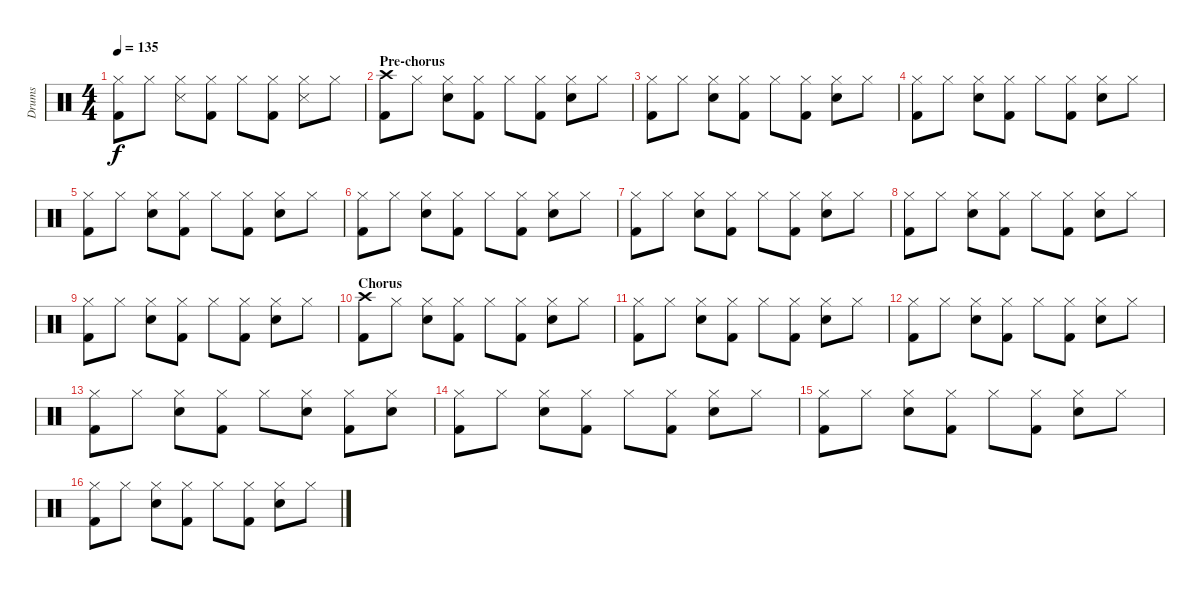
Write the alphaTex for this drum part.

\track ("Drums" "Drums") {instrument percussion}
\staff {score}
\articulation defaults
\ts (4 4)
\tempo 135
\clef neutral
\ks c
("Kick (hit) 2" "Hi-Hat (closed)").8{dy f} "Hi-Hat (closed)".8 ("Snare (side stick) 3" "Hi-Hat (closed)").8 ("Kick (hit) 2" "Hi-Hat (closed)").8 "Hi-Hat (closed)".8 ("Kick (hit) 2" "Hi-Hat (closed)").8 ("Snare (side stick) 3" "Hi-Hat (closed)").8 "Hi-Hat (closed)".8 |
\section ("" "Pre-chorus")
("Crash high (hit)" "Kick (hit) 2").8 "Hi-Hat (closed)".8 ("Snare (hit) 2" "Hi-Hat (closed)").8 ("Kick (hit) 2" "Hi-Hat (closed)").8 "Hi-Hat (closed)".8 ("Kick (hit) 2" "Hi-Hat (closed)").8 ("Snare (hit) 2" "Hi-Hat (closed)").8 "Hi-Hat (closed)".8 |
("Kick (hit) 2" "Hi-Hat (closed)").8 "Hi-Hat (closed)".8 ("Snare (hit) 2" "Hi-Hat (closed)").8 ("Kick (hit) 2" "Hi-Hat (closed)").8 "Hi-Hat (closed)".8 ("Kick (hit) 2" "Hi-Hat (closed)").8 ("Snare (hit) 2" "Hi-Hat (closed)").8 "Hi-Hat (closed)".8 |
("Kick (hit) 2" "Hi-Hat (closed)").8 "Hi-Hat (closed)".8 ("Snare (hit) 2" "Hi-Hat (closed)").8 ("Kick (hit) 2" "Hi-Hat (closed)").8 "Hi-Hat (closed)".8 ("Kick (hit) 2" "Hi-Hat (closed)").8 ("Snare (hit) 2" "Hi-Hat (closed)").8 "Hi-Hat (closed)".8 |
("Kick (hit) 2" "Hi-Hat (closed)").8 "Hi-Hat (closed)".8 ("Snare (hit) 2" "Hi-Hat (closed)").8 ("Kick (hit) 2" "Hi-Hat (closed)").8 "Hi-Hat (closed)".8 ("Kick (hit) 2" "Hi-Hat (closed)").8 ("Snare (hit) 2" "Hi-Hat (closed)").8 "Hi-Hat (closed)".8 |
("Kick (hit) 2" "Hi-Hat (closed)").8 "Hi-Hat (closed)".8 ("Snare (hit) 2" "Hi-Hat (closed)").8 ("Kick (hit) 2" "Hi-Hat (closed)").8 "Hi-Hat (closed)".8 ("Kick (hit) 2" "Hi-Hat (closed)").8 ("Snare (hit) 2" "Hi-Hat (closed)").8 "Hi-Hat (closed)".8 |
("Kick (hit) 2" "Hi-Hat (closed)").8 "Hi-Hat (closed)".8 ("Snare (hit) 2" "Hi-Hat (closed)").8 ("Kick (hit) 2" "Hi-Hat (closed)").8 "Hi-Hat (closed)".8 ("Kick (hit) 2" "Hi-Hat (closed)").8 ("Snare (hit) 2" "Hi-Hat (closed)").8 "Hi-Hat (closed)".8 |
("Kick (hit) 2" "Hi-Hat (closed)").8 "Hi-Hat (closed)".8 ("Snare (hit) 2" "Hi-Hat (closed)").8 ("Kick (hit) 2" "Hi-Hat (closed)").8 "Hi-Hat (closed)".8 ("Kick (hit) 2" "Hi-Hat (closed)").8 ("Snare (hit) 2" "Hi-Hat (closed)").8 "Hi-Hat (closed)".8 |
("Kick (hit) 2" "Hi-Hat (closed)").8 "Hi-Hat (closed)".8 ("Snare (hit) 2" "Hi-Hat (closed)").8 ("Kick (hit) 2" "Hi-Hat (closed)").8 "Hi-Hat (closed)".8 ("Kick (hit) 2" "Hi-Hat (closed)").8 ("Snare (hit) 2" "Hi-Hat (closed)").8 "Hi-Hat (closed)".8 |
\section ("" "Chorus")
("Crash high (hit)" "Kick (hit) 2").8 "Hi-Hat (closed)".8 ("Snare (hit) 2" "Hi-Hat (closed)").8 ("Kick (hit) 2" "Hi-Hat (closed)").8 "Hi-Hat (closed)".8 ("Kick (hit) 2" "Hi-Hat (closed)").8 ("Snare (hit) 2" "Hi-Hat (closed)").8 "Hi-Hat (closed)".8 |
("Kick (hit) 2" "Hi-Hat (closed)").8 "Hi-Hat (closed)".8 ("Snare (hit) 2" "Hi-Hat (closed)").8 ("Kick (hit) 2" "Hi-Hat (closed)").8 "Hi-Hat (closed)".8 ("Kick (hit) 2" "Hi-Hat (closed)").8 ("Snare (hit) 2" "Hi-Hat (closed)").8 "Hi-Hat (closed)".8 |
("Kick (hit) 2" "Hi-Hat (closed)").8 "Hi-Hat (closed)".8 ("Snare (hit) 2" "Hi-Hat (closed)").8 ("Kick (hit) 2" "Hi-Hat (closed)").8 "Hi-Hat (closed)".8 ("Kick (hit) 2" "Hi-Hat (closed)").8 ("Snare (hit) 2" "Hi-Hat (closed)").8 "Hi-Hat (closed)".8 |
("Kick (hit) 2" "Hi-Hat (closed)").8 "Hi-Hat (closed)".8 ("Snare (hit) 2" "Hi-Hat (closed)").8 ("Kick (hit) 2" "Hi-Hat (closed)").8 "Hi-Hat (closed)".8 ("Snare (hit) 2" "Hi-Hat (closed)").8 ("Kick (hit) 2" "Hi-Hat (closed)").8 ("Snare (hit) 2" "Hi-Hat (closed)").8 |
("Kick (hit) 2" "Hi-Hat (closed)").8 "Hi-Hat (closed)".8 ("Snare (hit) 2" "Hi-Hat (closed)").8 ("Kick (hit) 2" "Hi-Hat (closed)").8 "Hi-Hat (closed)".8 ("Kick (hit) 2" "Hi-Hat (closed)").8 ("Snare (hit) 2" "Hi-Hat (closed)").8 "Hi-Hat (closed)".8 |
("Kick (hit) 2" "Hi-Hat (closed)").8 "Hi-Hat (closed)".8 ("Snare (hit) 2" "Hi-Hat (closed)").8 ("Kick (hit) 2" "Hi-Hat (closed)").8 "Hi-Hat (closed)".8 ("Kick (hit) 2" "Hi-Hat (closed)").8 ("Snare (hit) 2" "Hi-Hat (closed)").8 "Hi-Hat (closed)".8 |
("Kick (hit) 2" "Hi-Hat (closed)").8 "Hi-Hat (closed)".8 ("Snare (hit) 2" "Hi-Hat (closed)").8 ("Kick (hit) 2" "Hi-Hat (closed)").8 "Hi-Hat (closed)".8 ("Kick (hit) 2" "Hi-Hat (closed)").8 ("Snare (hit) 2" "Hi-Hat (closed)").8 "Hi-Hat (closed)".8
